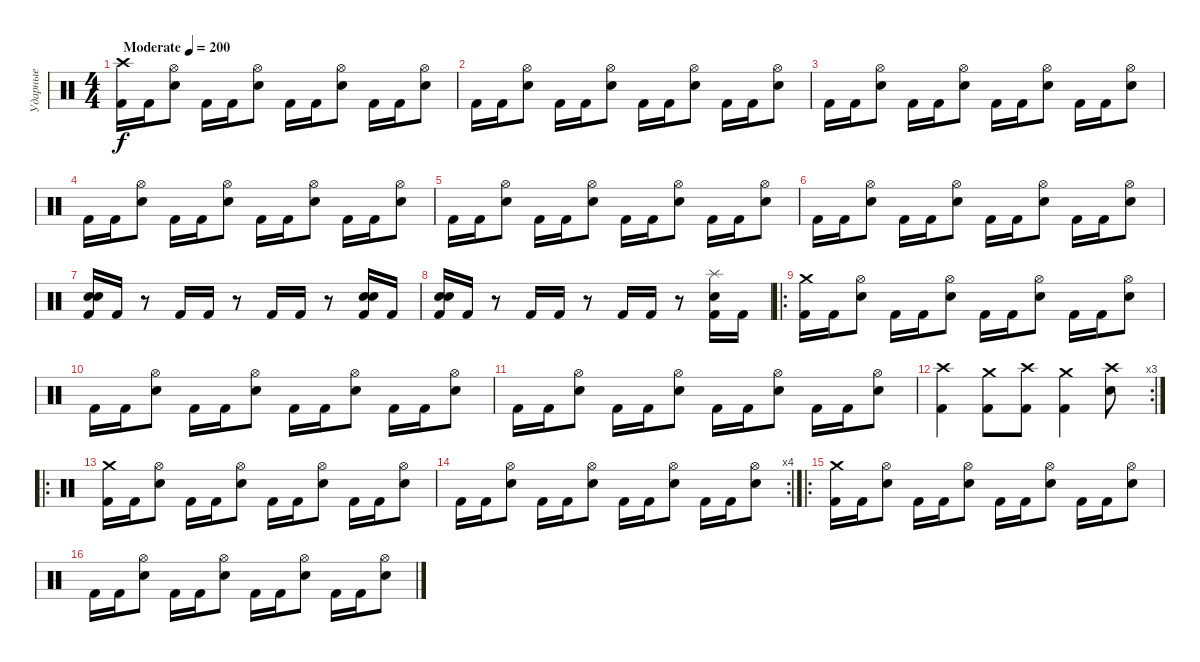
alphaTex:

\track ("Ударные" "Ударные") {instrument percussion}
\staff {score}
\articulation defaults
\ts (4 4)
\tempo (200 "Moderate")
\clef neutral
\ks c
("Crash high (hit)" "Kick (hit) 2").16{dy f} "Kick (hit) 2".16 ("Hi-Hat (open)" "Electric Snare (hit)").8 "Kick (hit) 2".16 "Kick (hit) 2".16 ("Hi-Hat (open)" "Electric Snare (hit)").8 "Kick (hit) 2".16 "Kick (hit) 2".16 ("Hi-Hat (open)" "Electric Snare (hit)").8 "Kick (hit) 2".16 "Kick (hit) 2".16 ("Hi-Hat (open)" "Electric Snare (hit)").8 |
"Kick (hit) 2".16 "Kick (hit) 2".16 ("Hi-Hat (open)" "Electric Snare (hit)").8 "Kick (hit) 2".16 "Kick (hit) 2".16 ("Hi-Hat (open)" "Electric Snare (hit)").8 "Kick (hit) 2".16 "Kick (hit) 2".16 ("Hi-Hat (open)" "Electric Snare (hit)").8 "Kick (hit) 2".16 "Kick (hit) 2".16 ("Hi-Hat (open)" "Electric Snare (hit)").8 |
"Kick (hit) 2".16 "Kick (hit) 2".16 ("Hi-Hat (open)" "Electric Snare (hit)").8 "Kick (hit) 2".16 "Kick (hit) 2".16 ("Hi-Hat (open)" "Electric Snare (hit)").8 "Kick (hit) 2".16 "Kick (hit) 2".16 ("Hi-Hat (open)" "Electric Snare (hit)").8 "Kick (hit) 2".16 "Kick (hit) 2".16 ("Hi-Hat (open)" "Electric Snare (hit)").8 |
"Kick (hit) 2".16 "Kick (hit) 2".16 ("Hi-Hat (open)" "Electric Snare (hit)").8 "Kick (hit) 2".16 "Kick (hit) 2".16 ("Hi-Hat (open)" "Electric Snare (hit)").8 "Kick (hit) 2".16 "Kick (hit) 2".16 ("Hi-Hat (open)" "Electric Snare (hit)").8 "Kick (hit) 2".16 "Kick (hit) 2".16 ("Hi-Hat (open)" "Electric Snare (hit)").8 |
"Kick (hit) 2".16 "Kick (hit) 2".16 ("Hi-Hat (open)" "Electric Snare (hit)").8 "Kick (hit) 2".16 "Kick (hit) 2".16 ("Hi-Hat (open)" "Electric Snare (hit)").8 "Kick (hit) 2".16 "Kick (hit) 2".16 ("Hi-Hat (open)" "Electric Snare (hit)").8 "Kick (hit) 2".16 "Kick (hit) 2".16 ("Hi-Hat (open)" "Electric Snare (hit)").8 |
"Kick (hit) 2".16 "Kick (hit) 2".16 ("Hi-Hat (open)" "Electric Snare (hit)").8 "Kick (hit) 2".16 "Kick (hit) 2".16 ("Hi-Hat (open)" "Electric Snare (hit)").8 "Kick (hit) 2".16 "Kick (hit) 2".16 ("Hi-Hat (open)" "Electric Snare (hit)").8 "Kick (hit) 2".16 "Kick (hit) 2".16 ("Hi-Hat (open)" "Electric Snare (hit)").8 |
("Electric Snare (hit)" "Electric Snare (hit)" "Kick (hit) 2").16 "Kick (hit) 2".16 r.8 "Kick (hit) 2".16 "Kick (hit) 2".16 r.8 "Kick (hit) 2".16 "Kick (hit) 2".16 r.8 ("Electric Snare (hit)" "Electric Snare (hit)" "Kick (hit) 2").16 "Kick (hit) 2".16 |
("Electric Snare (hit)" "Electric Snare (hit)" "Kick (hit) 2").16 "Kick (hit) 2".16 r.8 "Kick (hit) 2".16 "Kick (hit) 2".16 r.8 "Kick (hit) 2".16 "Kick (hit) 2".16 r.8 ("Splash (hit)" "Electric Snare (hit)" "Kick (hit) 2").16 "Kick (hit) 2".16 |
\ro
("Crash medium (hit)" "Kick (hit) 2").16 "Kick (hit) 2".16 ("Hi-Hat (open)" "Electric Snare (hit)").8 "Kick (hit) 2".16 "Kick (hit) 2".16 ("Hi-Hat (open)" "Electric Snare (hit)").8 "Kick (hit) 2".16 "Kick (hit) 2".16 ("Hi-Hat (open)" "Electric Snare (hit)").8 "Kick (hit) 2".16 "Kick (hit) 2".16 ("Hi-Hat (open)" "Electric Snare (hit)").8 |
"Kick (hit) 2".16 "Kick (hit) 2".16 ("Hi-Hat (open)" "Electric Snare (hit)").8 "Kick (hit) 2".16 "Kick (hit) 2".16 ("Hi-Hat (open)" "Electric Snare (hit)").8 "Kick (hit) 2".16 "Kick (hit) 2".16 ("Hi-Hat (open)" "Electric Snare (hit)").8 "Kick (hit) 2".16 "Kick (hit) 2".16 ("Hi-Hat (open)" "Electric Snare (hit)").8 |
"Kick (hit) 2".16 "Kick (hit) 2".16 ("Hi-Hat (open)" "Electric Snare (hit)").8 "Kick (hit) 2".16 "Kick (hit) 2".16 ("Hi-Hat (open)" "Electric Snare (hit)").8 "Kick (hit) 2".16 "Kick (hit) 2".16 ("Hi-Hat (open)" "Electric Snare (hit)").8 "Kick (hit) 2".16 "Kick (hit) 2".16 ("Hi-Hat (open)" "Electric Snare (hit)").8 |
\rc 3
("Crash high (hit)" "Kick (hit) 2").4 ("Crash medium (hit)" "Kick (hit) 2").8 ("Crash high (hit)" "Kick (hit) 2").8 ("Crash medium (hit)" "Kick (hit) 2").4 ("Crash high (hit)" "Electric Snare (hit)").8 |
\ro
("Crash medium (hit)" "Kick (hit) 2").16 "Kick (hit) 2".16 ("Hi-Hat (open)" "Electric Snare (hit)").8 "Kick (hit) 2".16 "Kick (hit) 2".16 ("Hi-Hat (open)" "Electric Snare (hit)").8 "Kick (hit) 2".16 "Kick (hit) 2".16 ("Hi-Hat (open)" "Electric Snare (hit)").8 "Kick (hit) 2".16 "Kick (hit) 2".16 ("Hi-Hat (open)" "Electric Snare (hit)").8 |
\rc 4 "Kick (hit) 2".16 "Kick (hit) 2".16
("Hi-Hat (open)" "Electric Snare (hit)").8 "Kick (hit) 2".16 "Kick (hit) 2".16 ("Hi-Hat (open)" "Electric Snare (hit)").8 "Kick (hit) 2".16 "Kick (hit) 2".16 ("Hi-Hat (open)" "Electric Snare (hit)").8 "Kick (hit) 2".16 "Kick (hit) 2".16 ("Hi-Hat (open)" "Electric Snare (hit)").8 |
\ro
("Crash medium (hit)" "Kick (hit) 2").16 "Kick (hit) 2".16 ("Hi-Hat (open)" "Electric Snare (hit)").8 "Kick (hit) 2".16 "Kick (hit) 2".16 ("Hi-Hat (open)" "Electric Snare (hit)").8 "Kick (hit) 2".16 "Kick (hit) 2".16 ("Hi-Hat (open)" "Electric Snare (hit)").8 "Kick (hit) 2".16 "Kick (hit) 2".16 ("Hi-Hat (open)" "Electric Snare (hit)").8 |
"Kick (hit) 2".16 "Kick (hit) 2".16 ("Hi-Hat (open)" "Electric Snare (hit)").8 "Kick (hit) 2".16 "Kick (hit) 2".16 ("Hi-Hat (open)" "Electric Snare (hit)").8 "Kick (hit) 2".16 "Kick (hit) 2".16 ("Hi-Hat (open)" "Electric Snare (hit)").8 "Kick (hit) 2".16 "Kick (hit) 2".16 ("Hi-Hat (open)" "Electric Snare (hit)").8
